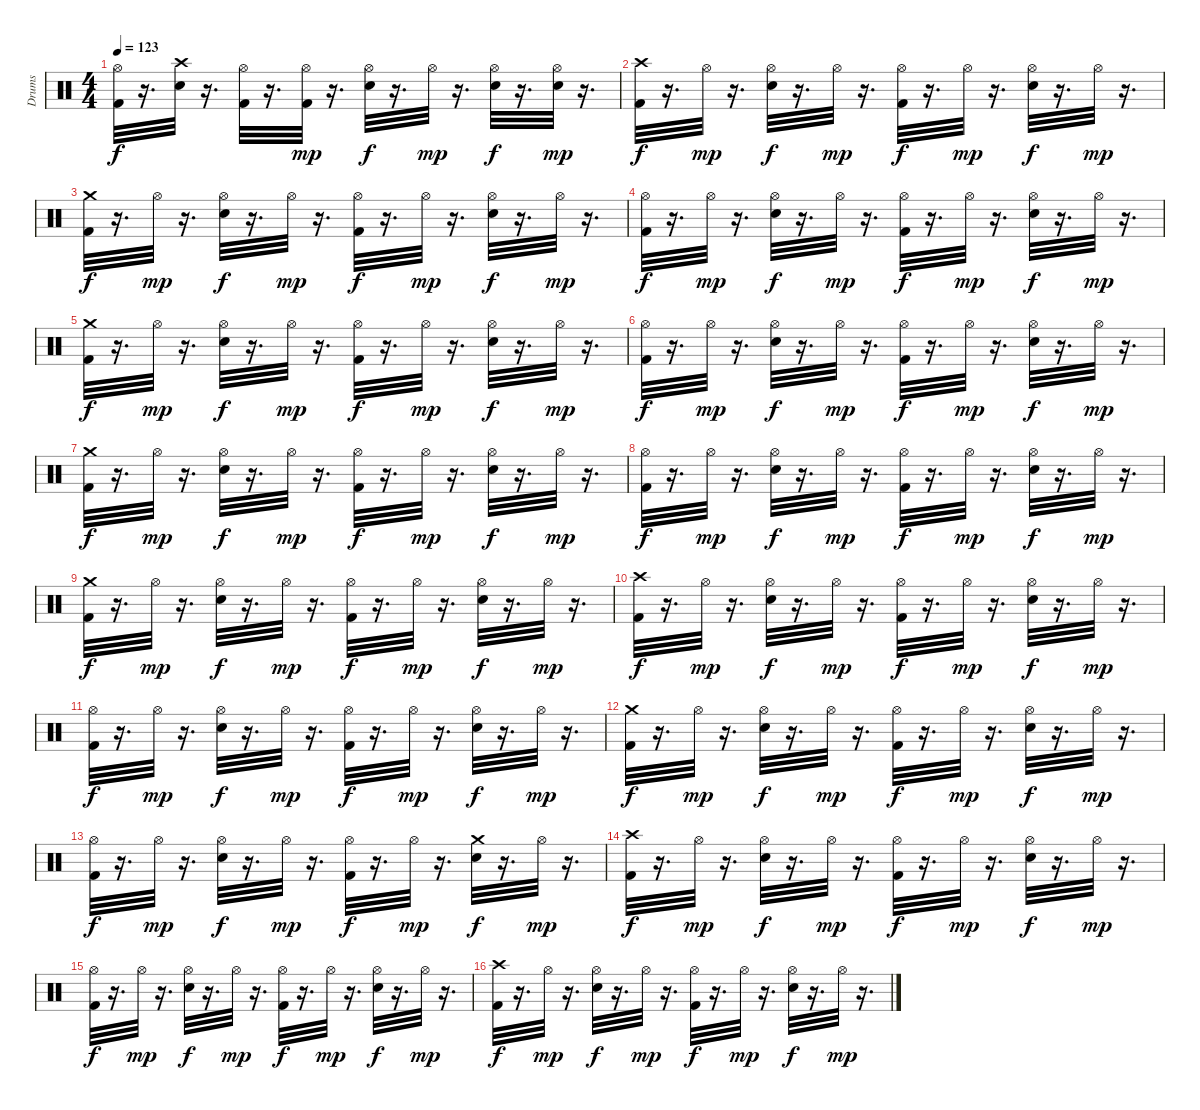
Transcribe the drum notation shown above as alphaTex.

\track ("Drums" "Drums") {instrument percussion}
\staff {score}
\articulation defaults
\ts (4 4)
\tempo 123
\clef neutral
\ks c
("Hi-Hat (open)" "Kick (hit) 2").32{dy f} r.16{d} ("Crash high (hit)" "Electric Snare (hit)").32 r.16{d} ("Hi-Hat (open)" "Kick (hit) 2").32 r.16{d} ("Hi-Hat (open)" "Kick (hit) 2").32{dy mp} r.16{d} ("Hi-Hat (open)" "Electric Snare (hit)").32{dy f} r.16{d} "Hi-Hat (open)".32{dy mp} r.16{d} ("Hi-Hat (open)" "Electric Snare (hit)").32{dy f} r.16{d} ("Hi-Hat (open)" "Electric Snare (hit)").32{dy mp} r.16{d} |
("Crash high (hit)" "Kick (hit) 2").32{dy f} r.16{d} "Hi-Hat (open)".32{dy mp} r.16{d} ("Electric Snare (hit)" "Hi-Hat (open)").32{dy f} r.16{d} "Hi-Hat (open)".32{dy mp} r.16{d} ("Kick (hit) 2" "Hi-Hat (open)").32{dy f} r.16{d} "Hi-Hat (open)".32{dy mp} r.16{d} ("Electric Snare (hit)" "Hi-Hat (open)").32{dy f} r.16{d} "Hi-Hat (open)".32{dy mp} r.16{d} |
("Crash medium (hit)" "Kick (hit) 2").32{dy f} r.16{d} "Hi-Hat (open)".32{dy mp} r.16{d} ("Hi-Hat (open)" "Electric Snare (hit)").32{dy f} r.16{d} "Hi-Hat (open)".32{dy mp} r.16{d} ("Hi-Hat (open)" "Kick (hit) 2").32{dy f} r.16{d} "Hi-Hat (open)".32{dy mp} r.16{d} ("Electric Snare (hit)" "Hi-Hat (open)").32{dy f} r.16{d} "Hi-Hat (open)".32{dy mp} r.16{d} |
("Hi-Hat (open)" "Kick (hit) 2").32{dy f} r.16{d} "Hi-Hat (open)".32{dy mp} r.16{d} ("Hi-Hat (open)" "Electric Snare (hit)").32{dy f} r.16{d} "Hi-Hat (open)".32{dy mp} r.16{d} ("Hi-Hat (open)" "Kick (hit) 2").32{dy f} r.16{d} "Hi-Hat (open)".32{dy mp} r.16{d} ("Hi-Hat (open)" "Electric Snare (hit)").32{dy f} r.16{d} "Hi-Hat (open)".32{dy mp} r.16{d} |
("Crash medium (hit)" "Kick (hit) 2").32{dy f} r.16{d} "Hi-Hat (open)".32{dy mp} r.16{d} ("Hi-Hat (open)" "Electric Snare (hit)").32{dy f} r.16{d} "Hi-Hat (open)".32{dy mp} r.16{d} ("Hi-Hat (open)" "Kick (hit) 2").32{dy f} r.16{d} "Hi-Hat (open)".32{dy mp} r.16{d} ("Electric Snare (hit)" "Hi-Hat (open)").32{dy f} r.16{d} "Hi-Hat (open)".32{dy mp} r.16{d} |
("Hi-Hat (open)" "Kick (hit) 2").32{dy f} r.16{d} "Hi-Hat (open)".32{dy mp} r.16{d} ("Hi-Hat (open)" "Electric Snare (hit)").32{dy f} r.16{d} "Hi-Hat (open)".32{dy mp} r.16{d} ("Hi-Hat (open)" "Kick (hit) 2").32{dy f} r.16{d} "Hi-Hat (open)".32{dy mp} r.16{d} ("Hi-Hat (open)" "Electric Snare (hit)").32{dy f} r.16{d} "Hi-Hat (open)".32{dy mp} r.16{d} |
("Crash medium (hit)" "Kick (hit) 2").32{dy f} r.16{d} "Hi-Hat (open)".32{dy mp} r.16{d} ("Hi-Hat (open)" "Electric Snare (hit)").32{dy f} r.16{d} "Hi-Hat (open)".32{dy mp} r.16{d} ("Hi-Hat (open)" "Kick (hit) 2").32{dy f} r.16{d} "Hi-Hat (open)".32{dy mp} r.16{d} ("Electric Snare (hit)" "Hi-Hat (open)").32{dy f} r.16{d} "Hi-Hat (open)".32{dy mp} r.16{d} |
("Hi-Hat (open)" "Kick (hit) 2").32{dy f} r.16{d} "Hi-Hat (open)".32{dy mp} r.16{d} ("Hi-Hat (open)" "Electric Snare (hit)").32{dy f} r.16{d} "Hi-Hat (open)".32{dy mp} r.16{d} ("Hi-Hat (open)" "Kick (hit) 2").32{dy f} r.16{d} "Hi-Hat (open)".32{dy mp} r.16{d} ("Hi-Hat (open)" "Electric Snare (hit)").32{dy f} r.16{d} "Hi-Hat (open)".32{dy mp} r.16{d} |
("Crash medium (hit)" "Kick (hit) 2").32{dy f} r.16{d} "Hi-Hat (open)".32{dy mp} r.16{d} ("Hi-Hat (open)" "Electric Snare (hit)").32{dy f} r.16{d} "Hi-Hat (open)".32{dy mp} r.16{d} ("Hi-Hat (open)" "Kick (hit) 2").32{dy f} r.16{d} "Hi-Hat (open)".32{dy mp} r.16{d} ("Electric Snare (hit)" "Hi-Hat (open)").32{dy f} r.16{d} "Hi-Hat (open)".32{dy mp} r.16{d} |
("Crash high (hit)" "Kick (hit) 2").32{dy f} r.16{d} "Hi-Hat (open)".32{dy mp} r.16{d} ("Hi-Hat (open)" "Electric Snare (hit)").32{dy f} r.16{d} "Hi-Hat (open)".32{dy mp} r.16{d} ("Hi-Hat (open)" "Kick (hit) 2").32{dy f} r.16{d} "Hi-Hat (open)".32{dy mp} r.16{d} ("Electric Snare (hit)" "Hi-Hat (open)").32{dy f} r.16{d} "Hi-Hat (open)".32{dy mp} r.16{d} |
("Kick (hit) 2" "Hi-Hat (open)").32{dy f} r.16{d} "Hi-Hat (open)".32{dy mp} r.16{d} ("Electric Snare (hit)" "Hi-Hat (open)").32{dy f} r.16{d} "Hi-Hat (open)".32{dy mp} r.16{d} ("Kick (hit) 2" "Hi-Hat (open)").32{dy f} r.16{d} "Hi-Hat (open)".32{dy mp} r.16{d} ("Electric Snare (hit)" "Hi-Hat (open)").32{dy f} r.16{d} "Hi-Hat (open)".32{dy mp} r.16{d} |
("Kick (hit) 2" "Crash medium (hit)").32{dy f} r.16{d} "Hi-Hat (open)".32{dy mp} r.16{d} ("Electric Snare (hit)" "Hi-Hat (open)").32{dy f} r.16{d} "Hi-Hat (open)".32{dy mp} r.16{d} ("Kick (hit) 2" "Hi-Hat (open)").32{dy f} r.16{d} "Hi-Hat (open)".32{dy mp} r.16{d} ("Electric Snare (hit)" "Hi-Hat (open)").32{dy f} r.16{d} "Hi-Hat (open)".32{dy mp} r.16{d} |
("Kick (hit) 2" "Hi-Hat (open)").32{dy f} r.16{d} "Hi-Hat (open)".32{dy mp} r.16{d} ("Electric Snare (hit)" "Hi-Hat (open)").32{dy f} r.16{d} "Hi-Hat (open)".32{dy mp} r.16{d} ("Kick (hit) 2" "Hi-Hat (open)").32{dy f} r.16{d} "Hi-Hat (open)".32{dy mp} r.16{d} ("Electric Snare (hit)" "Crash medium (hit)").32{dy f} r.16{d} "Hi-Hat (open)".32{dy mp} r.16{d} |
("Crash high (hit)" "Kick (hit) 2").32{dy f} r.16{d} "Hi-Hat (open)".32{dy mp} r.16{d} ("Hi-Hat (open)" "Electric Snare (hit)").32{dy f} r.16{d} "Hi-Hat (open)".32{dy mp} r.16{d} ("Hi-Hat (open)" "Kick (hit) 2").32{dy f} r.16{d} "Hi-Hat (open)".32{dy mp} r.16{d} ("Electric Snare (hit)" "Hi-Hat (open)").32{dy f} r.16{d} "Hi-Hat (open)".32{dy mp} r.16{d} |
("Kick (hit) 2" "Hi-Hat (open)").32{dy f} r.16{d} "Hi-Hat (open)".32{dy mp} r.16{d} ("Electric Snare (hit)" "Hi-Hat (open)").32{dy f} r.16{d} "Hi-Hat (open)".32{dy mp} r.16{d} ("Kick (hit) 2" "Hi-Hat (open)").32{dy f} r.16{d} "Hi-Hat (open)".32{dy mp} r.16{d} ("Electric Snare (hit)" "Hi-Hat (open)").32{dy f} r.16{d} "Hi-Hat (open)".32{dy mp} r.16{d} |
("Crash high (hit)" "Kick (hit) 2").32{dy f} r.16{d} "Hi-Hat (open)".32{dy mp} r.16{d} ("Hi-Hat (open)" "Electric Snare (hit)").32{dy f} r.16{d} "Hi-Hat (open)".32{dy mp} r.16{d} ("Hi-Hat (open)" "Kick (hit) 2").32{dy f} r.16{d} "Hi-Hat (open)".32{dy mp} r.16{d} ("Electric Snare (hit)" "Hi-Hat (open)").32{dy f} r.16{d} "Hi-Hat (open)".32{dy mp} r.16{d}
